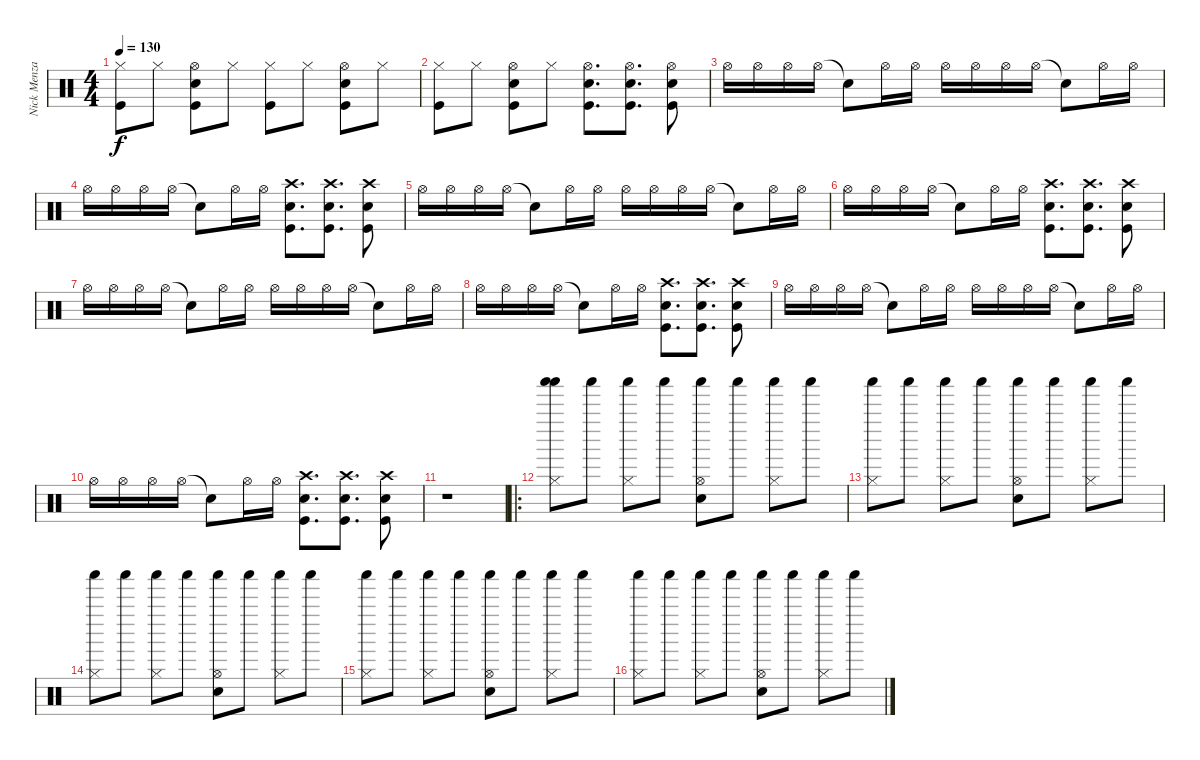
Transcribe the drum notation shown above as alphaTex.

\track ("Nick Menza" "Nick Menza") {instrument percussion}
\staff {score}
\articulation defaults
\ts (4 4)
\tempo 130
\clef neutral
\ks c
("Hi-Hat (closed)" "Kick (hit)").8{dy f} "Hi-Hat (closed)".8 ("Snare (hit) 2" "Hi-Hat (open)" "Kick (hit)").8 "Hi-Hat (closed)".8 ("Hi-Hat (closed)" "Kick (hit)").8 "Hi-Hat (closed)".8 ("Snare (hit) 2" "Hi-Hat (open)" "Kick (hit)").8 "Hi-Hat (closed)".8 |
("Hi-Hat (closed)" "Kick (hit)").8 "Hi-Hat (closed)".8 ("Snare (hit) 2" "Hi-Hat (open)" "Kick (hit)").8 "Hi-Hat (closed)".8 ("Snare (hit) 2" "Hi-Hat (open)" "Kick (hit)").8{d} ("Snare (hit) 2" "Hi-Hat (open)" "Kick (hit)").8{d} ("Snare (hit) 2" "Hi-Hat (open)" "Kick (hit)").8 |
"Hi-Hat (open)".16 "Hi-Hat (open)".16 "Hi-Hat (open)".16 "Hi-Hat (open)".16 "Snare (hit)"{t}.8 "Hi-Hat (open)".16 "Hi-Hat (open)".16 "Hi-Hat (open)".16 "Hi-Hat (open)".16 "Hi-Hat (open)".16 "Hi-Hat (open)".16 "Snare (hit)"{t}.8 "Hi-Hat (open)".16 "Hi-Hat (open)".16 |
"Hi-Hat (open)".16 "Hi-Hat (open)".16 "Hi-Hat (open)".16 "Hi-Hat (open)".16 "Snare (hit)"{t}.8 "Hi-Hat (open)".16 "Hi-Hat (open)".16 ("Crash high (hit)" "Snare (hit) 2" "Kick (hit)").8{d} ("Crash high (hit)" "Snare (hit) 2" "Kick (hit)").8{d} ("Crash high (hit)" "Snare (hit) 2" "Kick (hit)").8 |
"Hi-Hat (open)".16 "Hi-Hat (open)".16 "Hi-Hat (open)".16 "Hi-Hat (open)".16 "Snare (hit)"{t}.8 "Hi-Hat (open)".16 "Hi-Hat (open)".16 "Hi-Hat (open)".16 "Hi-Hat (open)".16 "Hi-Hat (open)".16 "Hi-Hat (open)".16 "Snare (hit)"{t}.8 "Hi-Hat (open)".16 "Hi-Hat (open)".16 |
"Hi-Hat (open)".16 "Hi-Hat (open)".16 "Hi-Hat (open)".16 "Hi-Hat (open)".16 "Snare (hit)"{t}.8 "Hi-Hat (open)".16 "Hi-Hat (open)".16 ("Crash high (hit)" "Snare (hit) 2" "Kick (hit)").8{d} ("Crash high (hit)" "Snare (hit) 2" "Kick (hit)").8{d} ("Crash high (hit)" "Snare (hit) 2" "Kick (hit)").8 |
"Hi-Hat (open)".16 "Hi-Hat (open)".16 "Hi-Hat (open)".16 "Hi-Hat (open)".16 "Snare (hit)"{t}.8 "Hi-Hat (open)".16 "Hi-Hat (open)".16 "Hi-Hat (open)".16 "Hi-Hat (open)".16 "Hi-Hat (open)".16 "Hi-Hat (open)".16 "Snare (hit)"{t}.8 "Hi-Hat (open)".16 "Hi-Hat (open)".16 |
"Hi-Hat (open)".16 "Hi-Hat (open)".16 "Hi-Hat (open)".16 "Hi-Hat (open)".16 "Snare (hit)"{t}.8 "Hi-Hat (open)".16 "Hi-Hat (open)".16 ("Crash high (hit)" "Snare (hit) 2" "Kick (hit)").8{d} ("Crash high (hit)" "Snare (hit) 2" "Kick (hit)").8{d} ("Crash high (hit)" "Snare (hit) 2" "Kick (hit)").8 |
"Hi-Hat (open)".16 "Hi-Hat (open)".16 "Hi-Hat (open)".16 "Hi-Hat (open)".16 "Snare (hit)"{t}.8 "Hi-Hat (open)".16 "Hi-Hat (open)".16 "Hi-Hat (open)".16 "Hi-Hat (open)".16 "Hi-Hat (open)".16 "Hi-Hat (open)".16 "Snare (hit)"{t}.8 "Hi-Hat (open)".16 "Hi-Hat (open)".16 |
"Hi-Hat (open)".16 "Hi-Hat (open)".16 "Hi-Hat (open)".16 "Hi-Hat (open)".16 "Snare (hit)"{t}.8 "Hi-Hat (open)".16 "Hi-Hat (open)".16 ("Crash high (hit)" "Snare (hit) 2" "Kick (hit)").8{d} ("Crash high (hit)" "Snare (hit) 2" "Kick (hit)").8{d} ("Crash high (hit)" "Snare (hit) 2" "Kick (hit)").8 |
r.1 |
\ro
("Shaker (hit)" "Hi-Hat (closed)" "Shaker (hit)").8 "Shaker (hit)".8 ("Shaker (hit)" "Hi-Hat (closed)").8 "Shaker (hit)".8 ("Shaker (hit)" "Hi-Hat (open)" "Snare (hit) 2").8 "Shaker (hit)".8 ("Shaker (hit)" "Hi-Hat (closed)").8 "Shaker (hit)".8 |
("Shaker (hit)" "Hi-Hat (closed)").8 "Shaker (hit)".8 ("Shaker (hit)" "Hi-Hat (closed)").8 "Shaker (hit)".8 ("Shaker (hit)" "Hi-Hat (open)" "Snare (hit) 2").8 "Shaker (hit)".8 ("Shaker (hit)" "Hi-Hat (closed)").8 "Shaker (hit)".8 |
("Shaker (hit)" "Hi-Hat (closed)").8 "Shaker (hit)".8 ("Shaker (hit)" "Hi-Hat (closed)").8 "Shaker (hit)".8 ("Shaker (hit)" "Hi-Hat (open)" "Snare (hit) 2").8 "Shaker (hit)".8 ("Shaker (hit)" "Hi-Hat (closed)").8 "Shaker (hit)".8 |
("Shaker (hit)" "Hi-Hat (closed)").8 "Shaker (hit)".8 ("Shaker (hit)" "Hi-Hat (closed)").8 "Shaker (hit)".8 ("Shaker (hit)" "Hi-Hat (open)" "Snare (hit) 2").8 "Shaker (hit)".8 ("Shaker (hit)" "Hi-Hat (closed)").8 "Shaker (hit)".8 |
("Shaker (hit)" "Hi-Hat (closed)").8 "Shaker (hit)".8 ("Shaker (hit)" "Hi-Hat (closed)").8 "Shaker (hit)".8 ("Shaker (hit)" "Hi-Hat (open)" "Snare (hit) 2").8 "Shaker (hit)".8 ("Shaker (hit)" "Hi-Hat (closed)").8 "Shaker (hit)".8
